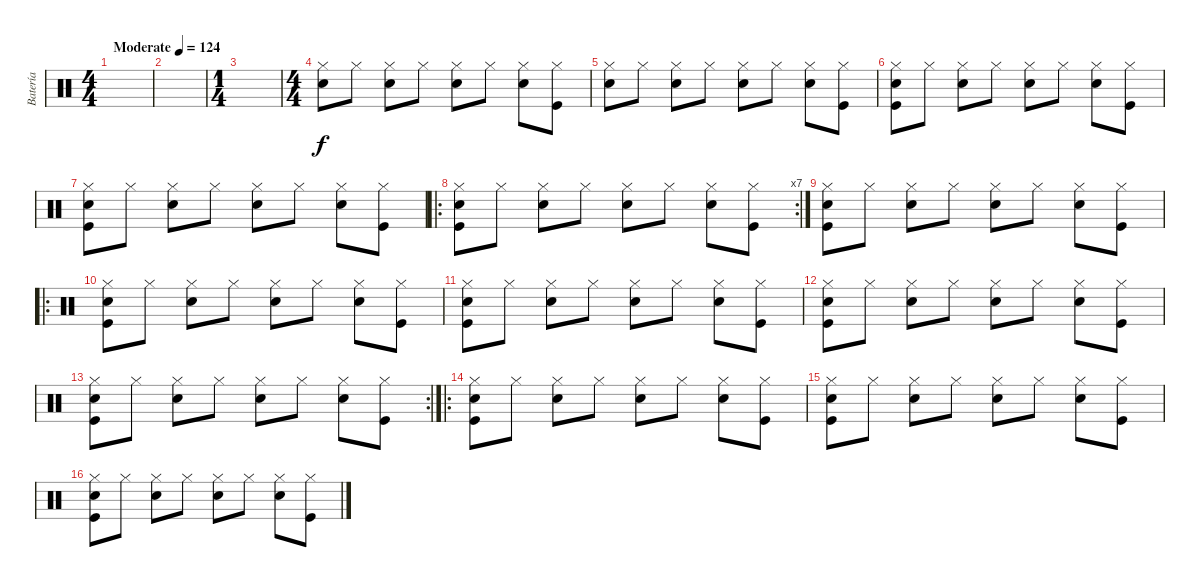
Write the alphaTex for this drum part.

\track ("Batería" "Batería") {instrument percussion bank 2}
\staff {score}
\articulation defaults
\ts (4 4)
\tempo (124 "Moderate")
\clef neutral
\ks c
|
|
\ts (1 4)
|
\ts (4 4)
("Hi-Hat (closed)" "Snare (hit) 2").8 "Hi-Hat (closed)".8 ("Hi-Hat (closed)" "Snare (hit) 2").8 "Hi-Hat (closed)".8 ("Hi-Hat (closed)" "Snare (hit) 2").8 "Hi-Hat (closed)".8 ("Hi-Hat (closed)" "Snare (hit) 2").8 ("Hi-Hat (closed)" "Kick (hit)").8 |
("Hi-Hat (closed)" "Snare (hit) 2").8 "Hi-Hat (closed)".8 ("Hi-Hat (closed)" "Snare (hit) 2").8 "Hi-Hat (closed)".8 ("Hi-Hat (closed)" "Snare (hit) 2").8 "Hi-Hat (closed)".8 ("Hi-Hat (closed)" "Snare (hit) 2").8 ("Hi-Hat (closed)" "Kick (hit)").8 |
("Hi-Hat (closed)" "Snare (hit) 2" "Kick (hit)").8 "Hi-Hat (closed)".8 ("Hi-Hat (closed)" "Snare (hit) 2").8 "Hi-Hat (closed)".8 ("Hi-Hat (closed)" "Snare (hit) 2").8 "Hi-Hat (closed)".8 ("Hi-Hat (closed)" "Snare (hit) 2").8 ("Hi-Hat (closed)" "Kick (hit)").8 |
("Hi-Hat (closed)" "Snare (hit) 2" "Kick (hit)").8 "Hi-Hat (closed)".8 ("Hi-Hat (closed)" "Snare (hit) 2").8 "Hi-Hat (closed)".8 ("Hi-Hat (closed)" "Snare (hit) 2").8 "Hi-Hat (closed)".8 ("Hi-Hat (closed)" "Snare (hit) 2").8 ("Hi-Hat (closed)" "Kick (hit)").8 |
\ro
\rc 7
("Hi-Hat (closed)" "Snare (hit) 2" "Kick (hit)").8 "Hi-Hat (closed)".8 ("Hi-Hat (closed)" "Snare (hit) 2").8 "Hi-Hat (closed)".8 ("Hi-Hat (closed)" "Snare (hit) 2").8 "Hi-Hat (closed)".8 ("Hi-Hat (closed)" "Snare (hit) 2").8 ("Hi-Hat (closed)" "Kick (hit)").8 |
("Hi-Hat (closed)" "Snare (hit) 2" "Kick (hit)").8 "Hi-Hat (closed)".8 ("Hi-Hat (closed)" "Snare (hit) 2").8 "Hi-Hat (closed)".8 ("Hi-Hat (closed)" "Snare (hit) 2").8 "Hi-Hat (closed)".8 ("Hi-Hat (closed)" "Snare (hit) 2").8 ("Hi-Hat (closed)" "Kick (hit)").8 |
\ro
("Hi-Hat (closed)" "Snare (hit) 2" "Kick (hit)").8 "Hi-Hat (closed)".8 ("Hi-Hat (closed)" "Snare (hit) 2").8 "Hi-Hat (closed)".8 ("Hi-Hat (closed)" "Snare (hit) 2").8 "Hi-Hat (closed)".8 ("Hi-Hat (closed)" "Snare (hit) 2").8 ("Hi-Hat (closed)" "Kick (hit)").8 |
("Hi-Hat (closed)" "Snare (hit) 2" "Kick (hit)").8 "Hi-Hat (closed)".8 ("Hi-Hat (closed)" "Snare (hit) 2").8 "Hi-Hat (closed)".8 ("Hi-Hat (closed)" "Snare (hit) 2").8 "Hi-Hat (closed)".8 ("Hi-Hat (closed)" "Snare (hit) 2").8 ("Hi-Hat (closed)" "Kick (hit)").8 |
("Hi-Hat (closed)" "Snare (hit) 2" "Kick (hit)").8 "Hi-Hat (closed)".8 ("Hi-Hat (closed)" "Snare (hit) 2").8 "Hi-Hat (closed)".8 ("Hi-Hat (closed)" "Snare (hit) 2").8 "Hi-Hat (closed)".8 ("Hi-Hat (closed)" "Snare (hit) 2").8 ("Hi-Hat (closed)" "Kick (hit)").8 |
\rc 2
("Hi-Hat (closed)" "Snare (hit) 2" "Kick (hit)").8 "Hi-Hat (closed)".8 ("Hi-Hat (closed)" "Snare (hit) 2").8 "Hi-Hat (closed)".8 ("Hi-Hat (closed)" "Snare (hit) 2").8 "Hi-Hat (closed)".8 ("Hi-Hat (closed)" "Snare (hit) 2").8 ("Hi-Hat (closed)" "Kick (hit)").8 |
\ro
("Hi-Hat (closed)" "Snare (hit) 2" "Kick (hit)").8 "Hi-Hat (closed)".8 ("Hi-Hat (closed)" "Snare (hit) 2").8 "Hi-Hat (closed)".8 ("Hi-Hat (closed)" "Snare (hit) 2").8 "Hi-Hat (closed)".8 ("Hi-Hat (closed)" "Snare (hit) 2").8 ("Hi-Hat (closed)" "Kick (hit)").8 |
("Hi-Hat (closed)" "Snare (hit) 2" "Kick (hit)").8 "Hi-Hat (closed)".8 ("Hi-Hat (closed)" "Snare (hit) 2").8 "Hi-Hat (closed)".8 ("Hi-Hat (closed)" "Snare (hit) 2").8 "Hi-Hat (closed)".8 ("Hi-Hat (closed)" "Snare (hit) 2").8 ("Hi-Hat (closed)" "Kick (hit)").8 |
("Hi-Hat (closed)" "Snare (hit) 2" "Kick (hit)").8 "Hi-Hat (closed)".8 ("Hi-Hat (closed)" "Snare (hit) 2").8 "Hi-Hat (closed)".8 ("Hi-Hat (closed)" "Snare (hit) 2").8 "Hi-Hat (closed)".8 ("Hi-Hat (closed)" "Snare (hit) 2").8 ("Hi-Hat (closed)" "Kick (hit)").8
